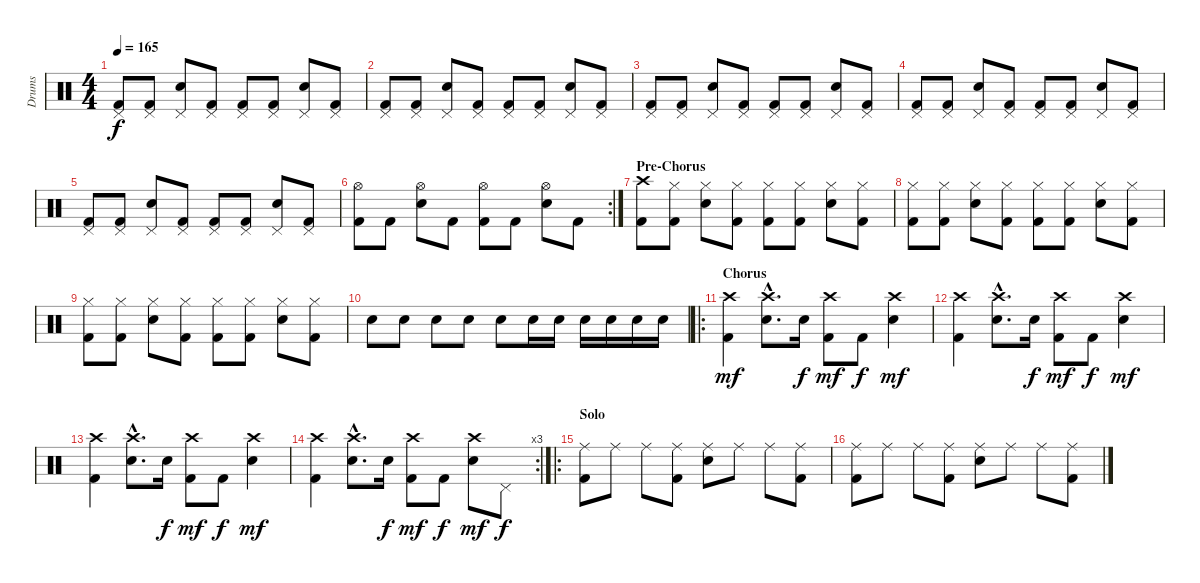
\track ("Drums" "Drums") {instrument percussion}
\staff {score}
\articulation defaults
\ts (4 4)
\tempo 165
\clef neutral
\ks c
("Pedal Hi-Hat (hit)" "Kick (hit) 2").8{dy f} ("Pedal Hi-Hat (hit)" "Kick (hit) 2").8 ("Pedal Hi-Hat (hit)" "Electric Snare (hit)").8 ("Pedal Hi-Hat (hit)" "Kick (hit) 2").8 ("Pedal Hi-Hat (hit)" "Kick (hit) 2").8 ("Pedal Hi-Hat (hit)" "Kick (hit) 2").8 ("Pedal Hi-Hat (hit)" "Electric Snare (hit)").8 ("Pedal Hi-Hat (hit)" "Kick (hit) 2").8 |
("Pedal Hi-Hat (hit)" "Kick (hit) 2").8 ("Pedal Hi-Hat (hit)" "Kick (hit) 2").8 ("Pedal Hi-Hat (hit)" "Electric Snare (hit)").8 ("Pedal Hi-Hat (hit)" "Kick (hit) 2").8 ("Pedal Hi-Hat (hit)" "Kick (hit) 2").8 ("Pedal Hi-Hat (hit)" "Kick (hit) 2").8 ("Pedal Hi-Hat (hit)" "Electric Snare (hit)").8 ("Pedal Hi-Hat (hit)" "Kick (hit) 2").8 |
("Pedal Hi-Hat (hit)" "Kick (hit) 2").8 ("Pedal Hi-Hat (hit)" "Kick (hit) 2").8 ("Pedal Hi-Hat (hit)" "Electric Snare (hit)").8 ("Pedal Hi-Hat (hit)" "Kick (hit) 2").8 ("Pedal Hi-Hat (hit)" "Kick (hit) 2").8 ("Pedal Hi-Hat (hit)" "Kick (hit) 2").8 ("Pedal Hi-Hat (hit)" "Electric Snare (hit)").8 ("Pedal Hi-Hat (hit)" "Kick (hit) 2").8 |
("Pedal Hi-Hat (hit)" "Kick (hit) 2").8 ("Pedal Hi-Hat (hit)" "Kick (hit) 2").8 ("Pedal Hi-Hat (hit)" "Electric Snare (hit)").8 ("Pedal Hi-Hat (hit)" "Kick (hit) 2").8 ("Pedal Hi-Hat (hit)" "Kick (hit) 2").8 ("Pedal Hi-Hat (hit)" "Kick (hit) 2").8 ("Pedal Hi-Hat (hit)" "Electric Snare (hit)").8 ("Pedal Hi-Hat (hit)" "Kick (hit) 2").8 |
("Pedal Hi-Hat (hit)" "Kick (hit) 2").8 ("Pedal Hi-Hat (hit)" "Kick (hit) 2").8 ("Pedal Hi-Hat (hit)" "Electric Snare (hit)").8 ("Pedal Hi-Hat (hit)" "Kick (hit) 2").8 ("Pedal Hi-Hat (hit)" "Kick (hit) 2").8 ("Pedal Hi-Hat (hit)" "Kick (hit) 2").8 ("Pedal Hi-Hat (hit)" "Electric Snare (hit)").8 ("Pedal Hi-Hat (hit)" "Kick (hit) 2").8 |
\rc 2
("Hi-Hat (open)" "Kick (hit) 2").8 "Kick (hit) 2".8 ("Hi-Hat (open)" "Electric Snare (hit)").8 "Kick (hit) 2".8 ("Hi-Hat (open)" "Kick (hit) 2").8 "Kick (hit) 2".8 ("Hi-Hat (open)" "Electric Snare (hit)").8 "Kick (hit) 2".8 |
\section ("" "Pre-Chorus")
("Crash high (hit)" "Kick (hit) 2").8 ("Hi-Hat (closed)" "Kick (hit) 2").8 ("Hi-Hat (closed)" "Electric Snare (hit)").8 ("Hi-Hat (closed)" "Kick (hit) 2").8 ("Hi-Hat (closed)" "Kick (hit) 2").8 ("Hi-Hat (closed)" "Kick (hit) 2").8 ("Hi-Hat (closed)" "Electric Snare (hit)").8 ("Hi-Hat (closed)" "Kick (hit) 2").8 |
("Hi-Hat (closed)" "Kick (hit) 2").8 ("Hi-Hat (closed)" "Kick (hit) 2").8 ("Hi-Hat (closed)" "Electric Snare (hit)").8 ("Hi-Hat (closed)" "Kick (hit) 2").8 ("Hi-Hat (closed)" "Kick (hit) 2").8 ("Hi-Hat (closed)" "Kick (hit) 2").8 ("Hi-Hat (closed)" "Electric Snare (hit)").8 ("Hi-Hat (closed)" "Kick (hit) 2").8 |
("Hi-Hat (closed)" "Kick (hit) 2").8 ("Hi-Hat (closed)" "Kick (hit) 2").8 ("Hi-Hat (closed)" "Electric Snare (hit)").8 ("Hi-Hat (closed)" "Kick (hit) 2").8 ("Hi-Hat (closed)" "Kick (hit) 2").8 ("Hi-Hat (closed)" "Kick (hit) 2").8 ("Hi-Hat (closed)" "Electric Snare (hit)").8 ("Hi-Hat (closed)" "Kick (hit) 2").8 |
"Electric Snare (hit)".8 "Electric Snare (hit)".8 "Electric Snare (hit)".8 "Electric Snare (hit)".8 "Electric Snare (hit)".8 "Electric Snare (hit)".16 "Electric Snare (hit)".16 "Electric Snare (hit)".16 "Electric Snare (hit)".16 "Electric Snare (hit)".16 "Electric Snare (hit)".16 |
\ro
\section ("" "Chorus")
("Crash high (hit)" "Kick (hit) 2").4{dy mf} ("Crash high (hit)"{hac} "Electric Snare (hit)"{hac}).8{d} "Electric Snare (hit)".16{dy f} ("Crash high (hit)" "Kick (hit) 2").8{dy mf} "Kick (hit) 2".8{dy f} ("Crash high (hit)" "Electric Snare (hit)").4{dy mf} |
("Crash high (hit)" "Kick (hit) 2").4 ("Crash high (hit)"{hac} "Electric Snare (hit)"{hac}).8{d} "Electric Snare (hit)".16{dy f} ("Crash high (hit)" "Kick (hit) 2").8{dy mf} "Kick (hit) 2".8{dy f} ("Crash high (hit)" "Electric Snare (hit)").4{dy mf} |
("Crash high (hit)" "Kick (hit) 2").4 ("Crash high (hit)"{hac} "Electric Snare (hit)"{hac}).8{d} "Electric Snare (hit)".16{dy f} ("Crash high (hit)" "Kick (hit) 2").8{dy mf} "Kick (hit) 2".8{dy f} ("Crash high (hit)" "Electric Snare (hit)").4{dy mf} |
\rc 3
("Crash high (hit)" "Kick (hit) 2").4 ("Crash high (hit)"{hac} "Electric Snare (hit)"{hac}).8{d} "Electric Snare (hit)".16{dy f} ("Crash high (hit)" "Kick (hit) 2").8{dy mf} "Kick (hit) 2".8{dy f} ("Crash high (hit)" "Electric Snare (hit)").8{dy mf} "Pedal Hi-Hat (hit)".8{dy f} |
\ro
\section ("" "Solo")
("Ride (middle)" "Kick (hit) 2").8 "Ride (middle)".8 "Ride (middle)".8 ("Ride (middle)" "Kick (hit) 2").8 ("Ride (middle)" "Electric Snare (hit)").8 "Ride (middle)".8 "Ride (middle)".8 ("Ride (middle)" "Kick (hit) 2").8 |
("Ride (middle)" "Kick (hit) 2").8 "Ride (middle)".8 "Ride (middle)".8 ("Ride (middle)" "Kick (hit) 2").8 ("Ride (middle)" "Electric Snare (hit)").8 "Ride (middle)".8 "Ride (middle)".8 ("Ride (middle)" "Kick (hit) 2").8
